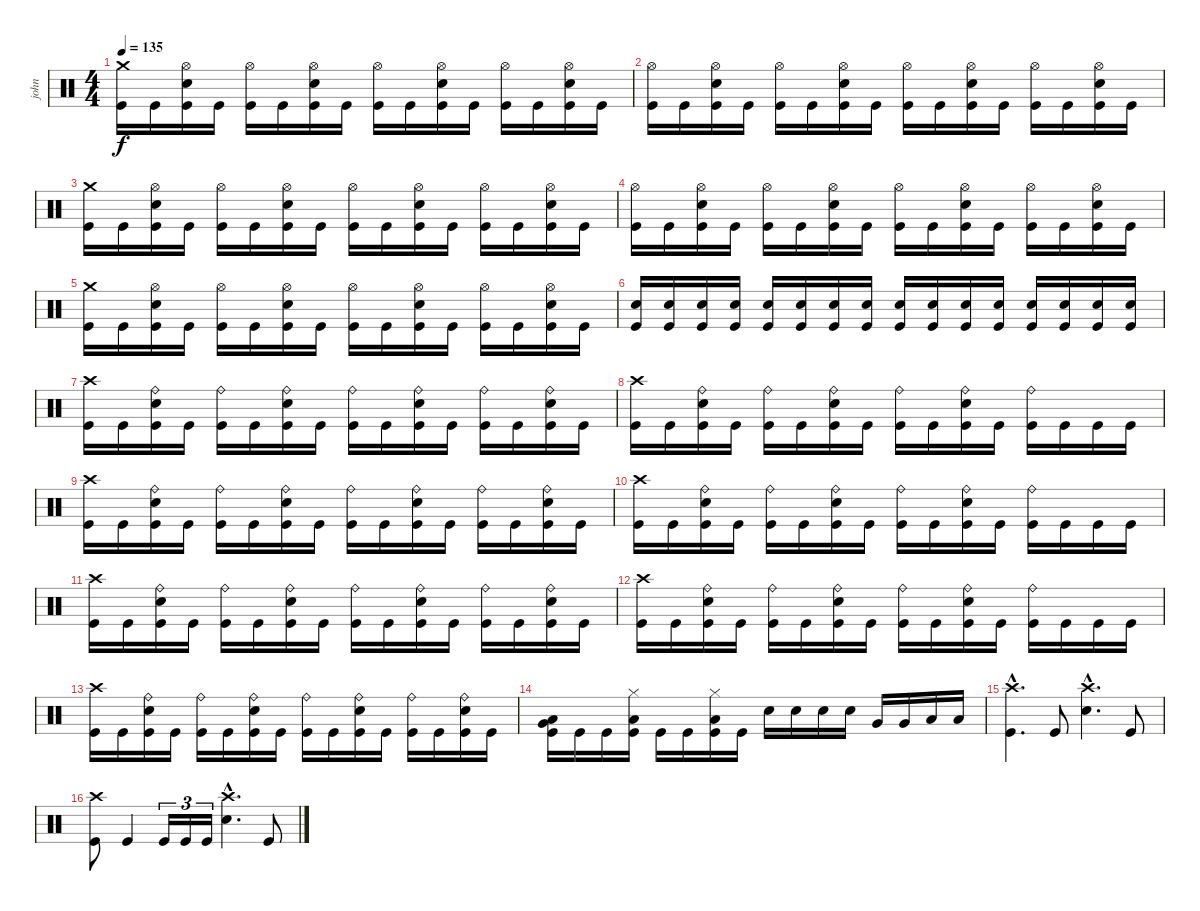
\track ("john" "john") {instrument percussion}
\staff {score}
\articulation defaults
\ts (4 4)
\tempo 135
\clef neutral
\ks c
("Kick (hit)" "Crash medium (hit)").16{dy f} "Kick (hit)".16 ("Kick (hit)" "Hi-Hat (open)" "Snare (hit) 2").16 "Kick (hit)".16 ("Kick (hit)" "Hi-Hat (open)").16 "Kick (hit)".16 ("Kick (hit)" "Hi-Hat (open)" "Snare (hit) 2").16 "Kick (hit)".16 ("Kick (hit)" "Hi-Hat (open)").16 "Kick (hit)".16 ("Kick (hit)" "Snare (hit) 2" "Hi-Hat (open)").16 "Kick (hit)".16 ("Kick (hit)" "Hi-Hat (open)").16 "Kick (hit)".16 ("Kick (hit)" "Snare (hit) 2" "Hi-Hat (open)").16 "Kick (hit)".16 |
("Kick (hit)" "Hi-Hat (open)").16 "Kick (hit)".16 ("Kick (hit)" "Hi-Hat (open)" "Snare (hit) 2").16 "Kick (hit)".16 ("Kick (hit)" "Hi-Hat (open)").16 "Kick (hit)".16 ("Kick (hit)" "Hi-Hat (open)" "Snare (hit) 2").16 "Kick (hit)".16 ("Kick (hit)" "Hi-Hat (open)").16 "Kick (hit)".16 ("Kick (hit)" "Snare (hit) 2" "Hi-Hat (open)").16 "Kick (hit)".16 ("Kick (hit)" "Hi-Hat (open)").16 "Kick (hit)".16 ("Kick (hit)" "Snare (hit) 2" "Hi-Hat (open)").16 "Kick (hit)".16 |
("Kick (hit)" "Crash medium (hit)").16 "Kick (hit)".16 ("Kick (hit)" "Hi-Hat (open)" "Snare (hit) 2").16 "Kick (hit)".16 ("Kick (hit)" "Hi-Hat (open)").16 "Kick (hit)".16 ("Kick (hit)" "Hi-Hat (open)" "Snare (hit) 2").16 "Kick (hit)".16 ("Kick (hit)" "Hi-Hat (open)").16 "Kick (hit)".16 ("Kick (hit)" "Snare (hit) 2" "Hi-Hat (open)").16 "Kick (hit)".16 ("Kick (hit)" "Hi-Hat (open)").16 "Kick (hit)".16 ("Kick (hit)" "Snare (hit) 2" "Hi-Hat (open)").16 "Kick (hit)".16 |
("Kick (hit)" "Hi-Hat (open)").16 "Kick (hit)".16 ("Kick (hit)" "Hi-Hat (open)" "Snare (hit) 2").16 "Kick (hit)".16 ("Kick (hit)" "Hi-Hat (open)").16 "Kick (hit)".16 ("Kick (hit)" "Hi-Hat (open)" "Snare (hit) 2").16 "Kick (hit)".16 ("Kick (hit)" "Hi-Hat (open)").16 "Kick (hit)".16 ("Kick (hit)" "Snare (hit) 2" "Hi-Hat (open)").16 "Kick (hit)".16 ("Kick (hit)" "Hi-Hat (open)").16 "Kick (hit)".16 ("Kick (hit)" "Snare (hit) 2" "Hi-Hat (open)").16 "Kick (hit)".16 |
("Kick (hit)" "Crash medium (hit)").16 "Kick (hit)".16 ("Kick (hit)" "Hi-Hat (open)" "Snare (hit) 2").16 "Kick (hit)".16 ("Kick (hit)" "Hi-Hat (open)").16 "Kick (hit)".16 ("Kick (hit)" "Hi-Hat (open)" "Snare (hit) 2").16 "Kick (hit)".16 ("Kick (hit)" "Hi-Hat (open)").16 "Kick (hit)".16 ("Kick (hit)" "Snare (hit) 2" "Hi-Hat (open)").16 "Kick (hit)".16 ("Kick (hit)" "Hi-Hat (open)").16 "Kick (hit)".16 ("Kick (hit)" "Snare (hit) 2" "Hi-Hat (open)").16 "Kick (hit)".16 |
("Kick (hit)" "Snare (hit) 2").16 ("Kick (hit)" "Snare (hit) 2").16 ("Kick (hit)" "Snare (hit) 2").16 ("Kick (hit)" "Snare (hit) 2").16 ("Kick (hit)" "Snare (hit) 2").16 ("Kick (hit)" "Snare (hit) 2").16 ("Kick (hit)" "Snare (hit) 2").16 ("Kick (hit)" "Snare (hit) 2").16 ("Kick (hit)" "Snare (hit) 2").16 ("Kick (hit)" "Snare (hit) 2").16 ("Kick (hit)" "Snare (hit) 2").16 ("Kick (hit)" "Snare (hit) 2").16 ("Kick (hit)" "Snare (hit) 2").16 ("Kick (hit)" "Snare (hit) 2").16 ("Kick (hit)" "Snare (hit) 2").16 ("Kick (hit)" "Snare (hit) 2").16 |
("Kick (hit)" "Crash high (hit)").16 "Kick (hit)".16 ("Kick (hit)" "Ride (bell)" "Snare (hit) 2").16 "Kick (hit)".16 ("Kick (hit)" "Ride (bell)").16 "Kick (hit)".16 ("Kick (hit)" "Ride (bell)" "Snare (hit) 2").16 "Kick (hit)".16 ("Kick (hit)" "Ride (bell)").16 "Kick (hit)".16 ("Kick (hit)" "Ride (bell)" "Snare (hit) 2").16 "Kick (hit)".16 ("Kick (hit)" "Ride (bell)").16 "Kick (hit)".16 ("Kick (hit)" "Ride (bell)" "Snare (hit) 2").16 "Kick (hit)".16 |
("Kick (hit)" "Crash high (hit)").16 "Kick (hit)".16 ("Kick (hit)" "Ride (bell)" "Snare (hit) 2").16 "Kick (hit)".16 ("Kick (hit)" "Ride (bell)").16 "Kick (hit)".16 ("Kick (hit)" "Ride (bell)" "Snare (hit) 2").16 "Kick (hit)".16 ("Kick (hit)" "Ride (bell)").16 "Kick (hit)".16 ("Kick (hit)" "Ride (bell)" "Snare (hit) 2").16 "Kick (hit)".16 ("Kick (hit)" "Ride (bell)").16 "Kick (hit)".16 "Kick (hit)".16 "Kick (hit)".16 |
("Kick (hit)" "Crash high (hit)").16 "Kick (hit)".16 ("Kick (hit)" "Ride (bell)" "Snare (hit) 2").16 "Kick (hit)".16 ("Kick (hit)" "Ride (bell)").16 "Kick (hit)".16 ("Kick (hit)" "Ride (bell)" "Snare (hit) 2").16 "Kick (hit)".16 ("Kick (hit)" "Ride (bell)").16 "Kick (hit)".16 ("Kick (hit)" "Ride (bell)" "Snare (hit) 2").16 "Kick (hit)".16 ("Kick (hit)" "Ride (bell)").16 "Kick (hit)".16 ("Kick (hit)" "Ride (bell)" "Snare (hit) 2").16 "Kick (hit)".16 |
("Kick (hit)" "Crash high (hit)").16 "Kick (hit)".16 ("Kick (hit)" "Ride (bell)" "Snare (hit) 2").16 "Kick (hit)".16 ("Kick (hit)" "Ride (bell)").16 "Kick (hit)".16 ("Kick (hit)" "Ride (bell)" "Snare (hit) 2").16 "Kick (hit)".16 ("Kick (hit)" "Ride (bell)").16 "Kick (hit)".16 ("Kick (hit)" "Ride (bell)" "Snare (hit) 2").16 "Kick (hit)".16 ("Kick (hit)" "Ride (bell)").16 "Kick (hit)".16 "Kick (hit)".16 "Kick (hit)".16 |
("Kick (hit)" "Crash high (hit)").16 "Kick (hit)".16 ("Kick (hit)" "Ride (bell)" "Snare (hit) 2").16 "Kick (hit)".16 ("Kick (hit)" "Ride (bell)").16 "Kick (hit)".16 ("Kick (hit)" "Ride (bell)" "Snare (hit) 2").16 "Kick (hit)".16 ("Kick (hit)" "Ride (bell)").16 "Kick (hit)".16 ("Kick (hit)" "Ride (bell)" "Snare (hit) 2").16 "Kick (hit)".16 ("Kick (hit)" "Ride (bell)").16 "Kick (hit)".16 ("Kick (hit)" "Ride (bell)" "Snare (hit) 2").16 "Kick (hit)".16 |
("Kick (hit)" "Crash high (hit)").16 "Kick (hit)".16 ("Kick (hit)" "Ride (bell)" "Snare (hit) 2").16 "Kick (hit)".16 ("Kick (hit)" "Ride (bell)").16 "Kick (hit)".16 ("Kick (hit)" "Ride (bell)" "Snare (hit) 2").16 "Kick (hit)".16 ("Kick (hit)" "Ride (bell)").16 "Kick (hit)".16 ("Kick (hit)" "Ride (bell)" "Snare (hit) 2").16 "Kick (hit)".16 ("Kick (hit)" "Ride (bell)").16 "Kick (hit)".16 "Kick (hit)".16 "Kick (hit)".16 |
("Kick (hit)" "Crash high (hit)").16 "Kick (hit)".16 ("Kick (hit)" "Ride (bell)" "Snare (hit) 2").16 "Kick (hit)".16 ("Kick (hit)" "Ride (bell)").16 "Kick (hit)".16 ("Kick (hit)" "Ride (bell)" "Snare (hit) 2").16 "Kick (hit)".16 ("Kick (hit)" "Ride (bell)").16 "Kick (hit)".16 ("Kick (hit)" "Ride (bell)" "Snare (hit) 2").16 "Kick (hit)".16 ("Kick (hit)" "Ride (bell)").16 "Kick (hit)".16 ("Kick (hit)" "Ride (bell)" "Snare (hit) 2").16 "Kick (hit)".16 |
("Kick (hit)" "Low Tom (hit)" "Very Low Tom (hit)").16 "Kick (hit)".16 "Kick (hit)".16 ("Kick (hit)" "Low Floor Tom (hit)" "Hi-Hat (closed)").16 "Kick (hit)".16 "Kick (hit)".16 ("Kick (hit)" "Low Floor Tom (hit)" "Hi-Hat (closed)").16 "Kick (hit)".16 "Snare (hit) 2".16 "Snare (hit) 2".16 "Snare (hit) 2".16 "Snare (hit) 2".16 "Very Low Tom (hit)".16 "Very Low Tom (hit)".16 "Low Floor Tom (hit)".16 "Low Floor Tom (hit)".16 |
("Kick (hit)"{hac} "Crash high (hit)"{hac}).4{d} "Kick (hit)".8 ("Snare (hit) 2"{hac} "Crash high (hit)"{hac}).4{d} "Kick (hit)".8 |
("Kick (hit)" "Crash high (hit)").8 "Kick (hit)".4 "Kick (hit)".16{tu (3 2)} "Kick (hit)".16{tu (3 2)} "Kick (hit)".16{tu (3 2)} ("Snare (hit) 2"{hac} "Crash high (hit)"{hac}).4{d} "Kick (hit)".8
